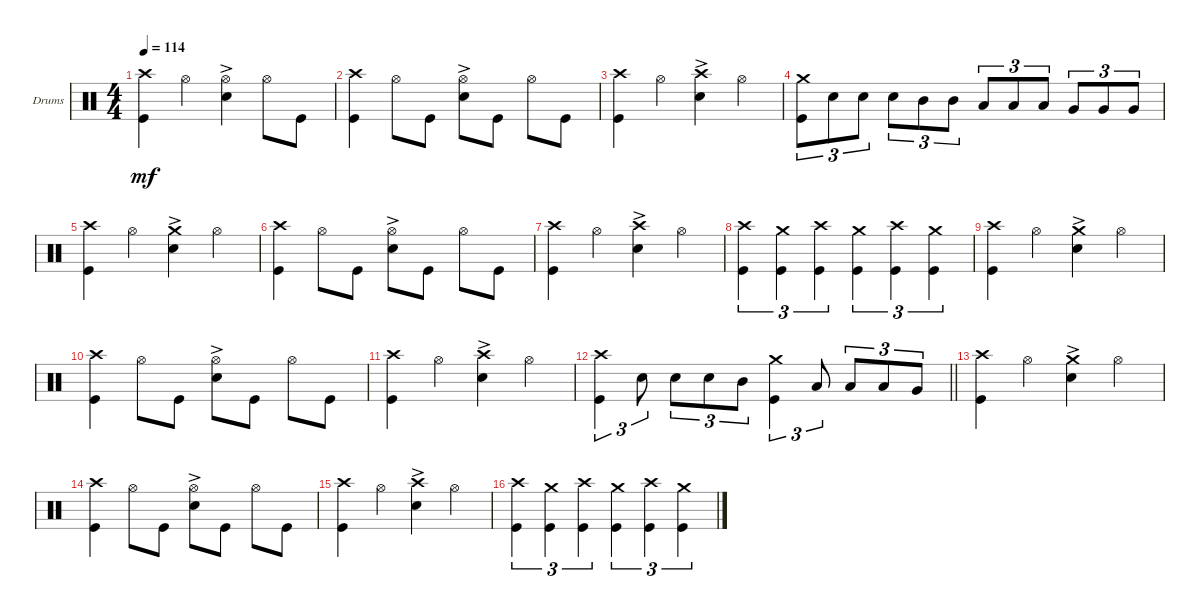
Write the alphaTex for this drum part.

\bracketExtendMode groupsimilarinstruments
\firstSystemTrackNameOrientation horizontal
\otherSystemsTrackNameOrientation horizontal
\track ("Drumkit" "Drums") {instrument percussion}
\staff {score}
\articulation defaults
\ts (4 4)
\tempo 114
\clef neutral
\ks c
("Kick (hit)" "Crash high (hit)").4{dy mf} "Hi-Hat (open)".4 ("Snare (hit) 2"{ac} "Hi-Hat (open)").4 "Hi-Hat (open)".8 "Kick (hit)".8 |
("Kick (hit)" "Crash high (hit)").4 "Hi-Hat (open)".8 "Kick (hit)".8 ("Snare (hit) 2"{ac} "Hi-Hat (open)").8 "Kick (hit)".8 "Hi-Hat (open)".8 "Kick (hit)".8 |
("Kick (hit)" "Crash high (hit)").4 "Hi-Hat (open)".4 ("Snare (hit) 2"{ac} "Crash high (hit)").4 "Hi-Hat (open)".4 |
("Crash medium (hit)" "Kick (hit)").8{tu (3 2)} "Snare (hit) 2".8{tu (3 2)} "Snare (hit) 2".8{tu (3 2)} "Snare (hit) 2".8{tu (3 2)} "Mid Tom (hit)".8{tu (3 2)} "Mid Tom (hit)".8{tu (3 2)} "Low Tom (hit)".8{tu (3 2)} "Low Tom (hit)".8{tu (3 2)} "Low Tom (hit)".8{tu (3 2)} "Very Low Tom (hit)".8{tu (3 2)} "Very Low Tom (hit)".8{tu (3 2)} "Very Low Tom (hit)".8{tu (3 2)} |
("Kick (hit)" "Crash high (hit)").4 "Hi-Hat (open)".4 ("Snare (hit) 2"{ac} "Crash medium (hit)").4 "Hi-Hat (open)".4 |
("Kick (hit)" "Crash high (hit)").4 "Hi-Hat (open)".8 "Kick (hit)".8 ("Snare (hit) 2"{ac} "Hi-Hat (open)").8 "Kick (hit)".8 "Hi-Hat (open)".8 "Kick (hit)".8 |
("Kick (hit)" "Crash high (hit)").4 "Hi-Hat (open)".4 ("Snare (hit) 2"{ac} "Crash high (hit)").4 "Hi-Hat (open)".4 |
("Kick (hit)" "Crash high (hit)").4{tu (3 2)} ("Kick (hit)" "Crash medium (hit)").4{tu (3 2)} ("Kick (hit)" "Crash high (hit)").4{tu (3 2)} ("Kick (hit)" "Crash medium (hit)").4{tu (3 2)} ("Kick (hit)" "Crash high (hit)").4{tu (3 2)} ("Kick (hit)" "Crash medium (hit)").4{tu (3 2)} |
("Kick (hit)" "Crash high (hit)").4 "Hi-Hat (open)".4 ("Snare (hit) 2"{ac} "Crash medium (hit)").4 "Hi-Hat (open)".4 |
("Kick (hit)" "Crash high (hit)").4 "Hi-Hat (open)".8 "Kick (hit)".8 ("Snare (hit) 2"{ac} "Hi-Hat (open)").8 "Kick (hit)".8 "Hi-Hat (open)".8 "Kick (hit)".8 |
("Kick (hit)" "Crash high (hit)").4 "Hi-Hat (open)".4 ("Snare (hit) 2"{ac} "Crash high (hit)").4 "Hi-Hat (open)".4 |
\barLineRight lightlight
("Kick (hit)" "Crash high (hit)").4{tu (3 2)} "Snare (hit) 2".8{tu (3 2)} "Snare (hit) 2".8{tu (3 2)} "Snare (hit) 2".8{tu (3 2)} "Mid Tom (hit)".8{tu (3 2)} ("Kick (hit)" "Crash medium (hit)").4{tu (3 2)} "Low Tom (hit)".8{tu (3 2)} "Low Tom (hit)".8{tu (3 2)} "Low Tom (hit)".8{tu (3 2)} "Very Low Tom (hit)".8{tu (3 2)} |
("Kick (hit)" "Crash high (hit)").4 "Hi-Hat (open)".4 ("Snare (hit) 2"{ac} "Crash medium (hit)").4 "Hi-Hat (open)".4 |
("Kick (hit)" "Crash high (hit)").4 "Hi-Hat (open)".8 "Kick (hit)".8 ("Snare (hit) 2"{ac} "Hi-Hat (open)").8 "Kick (hit)".8 "Hi-Hat (open)".8 "Kick (hit)".8 |
("Kick (hit)" "Crash high (hit)").4 "Hi-Hat (open)".4 ("Snare (hit) 2"{ac} "Crash high (hit)").4 "Hi-Hat (open)".4 |
("Kick (hit)" "Crash high (hit)").4{tu (3 2)} ("Kick (hit)" "Crash medium (hit)").4{tu (3 2)} ("Kick (hit)" "Crash high (hit)").4{tu (3 2)} ("Kick (hit)" "Crash medium (hit)").4{tu (3 2)} ("Kick (hit)" "Crash high (hit)").4{tu (3 2)} ("Kick (hit)" "Crash medium (hit)").4{tu (3 2)}
